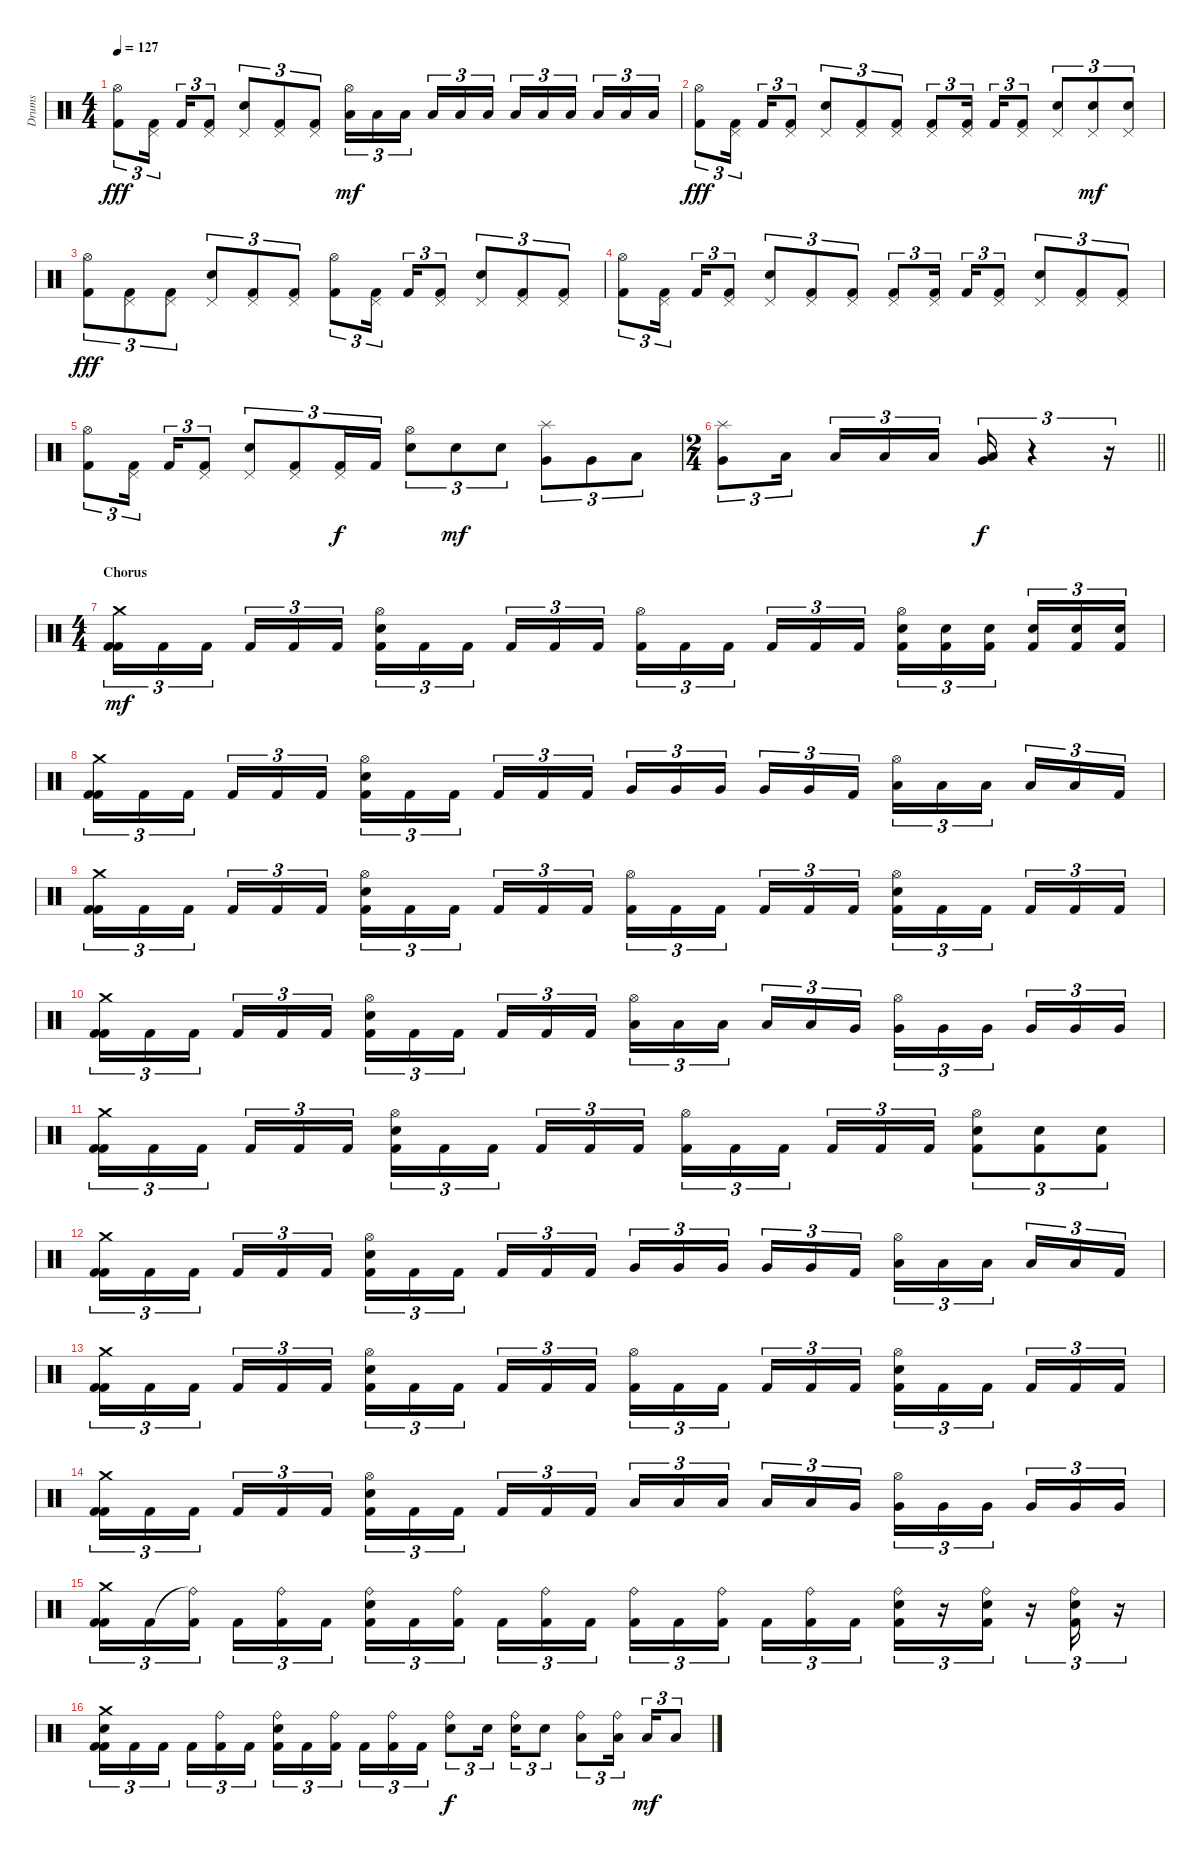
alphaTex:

\track ("Drums" "Drums") {instrument percussion}
\staff {score}
\articulation defaults
\ts (4 4)
\tempo 127
\clef neutral
\ks c
("Hi-Hat (open)" "Kick (hit) 2").8{tu (3 2) dy fff} ("Pedal Hi-Hat (hit)" "Kick (hit) 2").16{tu (3 2) beam splitsecondary} "Kick (hit) 2".16{tu (3 2)} ("Pedal Hi-Hat (hit)" "Kick (hit) 2").8{tu (3 2)} ("Pedal Hi-Hat (hit)" "Snare (hit) 2").8{tu (3 2)} ("Pedal Hi-Hat (hit)" "Kick (hit) 2").8{tu (3 2)} ("Pedal Hi-Hat (hit)" "Kick (hit) 2").8{tu (3 2)} ("Hi-Hat (open)" "Low Tom (hit)").16{tu (3 2) dy mf} "Low Tom (hit)".16{tu (3 2)} "Low Tom (hit)".16{tu (3 2) beam splitsecondary} "Low Tom (hit)".16{tu (3 2)} "Low Tom (hit)".16{tu (3 2)} "Low Tom (hit)".16{tu (3 2)} "Low Floor Tom (hit)".16{tu (3 2)} "Low Floor Tom (hit)".16{tu (3 2)} "Low Floor Tom (hit)".16{tu (3 2) beam splitsecondary} "Low Floor Tom (hit)".16{tu (3 2)} "Low Floor Tom (hit)".16{tu (3 2)} "Low Floor Tom (hit)".16{tu (3 2)} |
("Hi-Hat (open)" "Kick (hit) 2").8{tu (3 2) dy fff} ("Pedal Hi-Hat (hit)" "Kick (hit) 2").16{tu (3 2) beam splitsecondary} "Kick (hit) 2".16{tu (3 2)} ("Pedal Hi-Hat (hit)" "Kick (hit) 2").8{tu (3 2)} ("Pedal Hi-Hat (hit)" "Snare (hit) 2").8{tu (3 2)} ("Pedal Hi-Hat (hit)" "Kick (hit) 2").8{tu (3 2)} ("Pedal Hi-Hat (hit)" "Kick (hit) 2").8{tu (3 2)} ("Pedal Hi-Hat (hit)" "Kick (hit) 2").8{tu (3 2)} ("Pedal Hi-Hat (hit)" "Kick (hit) 2").16{tu (3 2) beam splitsecondary} "Kick (hit) 2".16{tu (3 2)} ("Pedal Hi-Hat (hit)" "Kick (hit) 2").8{tu (3 2)} ("Pedal Hi-Hat (hit)" "Snare (hit) 2").8{tu (3 2)} ("Pedal Hi-Hat (hit)" "Snare (hit) 2").8{tu (3 2) dy mf} ("Pedal Hi-Hat (hit)" "Snare (hit) 2").8{tu (3 2)} |
("Hi-Hat (open)" "Kick (hit) 2").8{tu (3 2) dy fff} ("Pedal Hi-Hat (hit)" "Kick (hit) 2").8{tu (3 2)} ("Pedal Hi-Hat (hit)" "Kick (hit) 2").8{tu (3 2)} ("Pedal Hi-Hat (hit)" "Snare (hit) 2").8{tu (3 2)} ("Pedal Hi-Hat (hit)" "Kick (hit) 2").8{tu (3 2)} ("Pedal Hi-Hat (hit)" "Kick (hit) 2").8{tu (3 2)} ("Hi-Hat (open)" "Kick (hit) 2").8{tu (3 2)} ("Pedal Hi-Hat (hit)" "Kick (hit) 2").16{tu (3 2) beam splitsecondary} "Kick (hit) 2".16{tu (3 2)} ("Pedal Hi-Hat (hit)" "Kick (hit) 2").8{tu (3 2)} ("Pedal Hi-Hat (hit)" "Snare (hit) 2").8{tu (3 2)} ("Pedal Hi-Hat (hit)" "Kick (hit) 2").8{tu (3 2)} ("Pedal Hi-Hat (hit)" "Kick (hit) 2").8{tu (3 2)} |
("Hi-Hat (open)" "Kick (hit) 2").8{tu (3 2)} ("Pedal Hi-Hat (hit)" "Kick (hit) 2").16{tu (3 2) beam splitsecondary} "Kick (hit) 2".16{tu (3 2)} ("Pedal Hi-Hat (hit)" "Kick (hit) 2").8{tu (3 2)} ("Pedal Hi-Hat (hit)" "Snare (hit) 2").8{tu (3 2)} ("Pedal Hi-Hat (hit)" "Kick (hit) 2").8{tu (3 2)} ("Pedal Hi-Hat (hit)" "Kick (hit) 2").8{tu (3 2)} ("Pedal Hi-Hat (hit)" "Kick (hit) 2").8{tu (3 2)} ("Pedal Hi-Hat (hit)" "Kick (hit) 2").16{tu (3 2) beam splitsecondary} "Kick (hit) 2".16{tu (3 2)} ("Pedal Hi-Hat (hit)" "Kick (hit) 2").8{tu (3 2)} ("Pedal Hi-Hat (hit)" "Snare (hit) 2").8{tu (3 2)} ("Pedal Hi-Hat (hit)" "Kick (hit) 2").8{tu (3 2)} ("Pedal Hi-Hat (hit)" "Kick (hit) 2").8{tu (3 2)} |
("Hi-Hat (open)" "Kick (hit) 2").8{tu (3 2)} ("Pedal Hi-Hat (hit)" "Kick (hit) 2").16{tu (3 2) beam splitsecondary} "Kick (hit) 2".16{tu (3 2)} ("Pedal Hi-Hat (hit)" "Kick (hit) 2").8{tu (3 2)} ("Pedal Hi-Hat (hit)" "Snare (hit) 2").8{tu (3 2)} ("Pedal Hi-Hat (hit)" "Kick (hit) 2").8{tu (3 2)} ("Pedal Hi-Hat (hit)" "Kick (hit) 2").16{tu (3 2) dy f} "Kick (hit) 2".16{tu (3 2)} ("Hi-Hat (open)" "Snare (hit) 2").8{tu (3 2)} "Snare (hit) 2".8{tu (3 2) dy mf} "Snare (hit) 2".8{tu (3 2)} ("Splash (hit)" "Very Low Tom (hit)").8{tu (3 2)} "Very Low Tom (hit)".8{tu (3 2)} "Low Floor Tom (hit)".8{tu (3 2)} |
\ts (2 4)
\barLineRight lightlight
("Splash (hit)" "Very Low Tom (hit)").8{tu (3 2)} "Low Floor Tom (hit)".16{tu (3 2) beam splitsecondary} "Low Floor Tom (hit)".16{tu (3 2)} "Low Floor Tom (hit)".16{tu (3 2)} "Low Floor Tom (hit)".16{tu (3 2)} ("Very Low Tom (hit)" "Low Floor Tom (hit)").16{tu (3 2) bd 120 dy f} r.4{tu (3 2)} r.16{tu (3 2)} |
\ts (4 4)
\section ("" "Chorus")
("Crash medium (hit)" "Kick (hit) 2" "Kick (hit) 2").16{tu (3 2) dy mf} "Kick (hit) 2".16{tu (3 2)} "Kick (hit) 2".16{tu (3 2) beam splitsecondary} "Kick (hit) 2".16{tu (3 2)} "Kick (hit) 2".16{tu (3 2)} "Kick (hit) 2".16{tu (3 2)} ("Hi-Hat (open)" "Snare (hit) 2" "Kick (hit) 2").16{tu (3 2)} "Kick (hit) 2".16{tu (3 2)} "Kick (hit) 2".16{tu (3 2) beam splitsecondary} "Kick (hit) 2".16{tu (3 2)} "Kick (hit) 2".16{tu (3 2)} "Kick (hit) 2".16{tu (3 2)} ("Hi-Hat (open)" "Kick (hit) 2").16{tu (3 2)} "Kick (hit) 2".16{tu (3 2)} "Kick (hit) 2".16{tu (3 2) beam splitsecondary} "Kick (hit) 2".16{tu (3 2)} "Kick (hit) 2".16{tu (3 2)} "Kick (hit) 2".16{tu (3 2)} ("Hi-Hat (open)" "Snare (hit) 2" "Kick (hit) 2").16{tu (3 2)} ("Snare (hit) 2" "Kick (hit) 2").16{tu (3 2)} ("Snare (hit) 2" "Kick (hit) 2").16{tu (3 2) beam splitsecondary} ("Snare (hit) 2" "Kick (hit) 2").16{tu (3 2)} ("Snare (hit) 2" "Kick (hit) 2").16{tu (3 2)} ("Snare (hit) 2" "Kick (hit) 2").16{tu (3 2)} |
("Crash medium (hit)" "Kick (hit) 2" "Kick (hit) 2").16{tu (3 2)} "Kick (hit) 2".16{tu (3 2)} "Kick (hit) 2".16{tu (3 2) beam splitsecondary} "Kick (hit) 2".16{tu (3 2)} "Kick (hit) 2".16{tu (3 2)} "Kick (hit) 2".16{tu (3 2)} ("Hi-Hat (open)" "Snare (hit) 2" "Kick (hit) 2").16{tu (3 2)} "Kick (hit) 2".16{tu (3 2)} "Kick (hit) 2".16{tu (3 2) beam splitsecondary} "Kick (hit) 2".16{tu (3 2)} "Kick (hit) 2".16{tu (3 2)} "Kick (hit) 2".16{tu (3 2)} "Very Low Tom (hit)".16{tu (3 2)} "Very Low Tom (hit)".16{tu (3 2)} "Very Low Tom (hit)".16{tu (3 2) beam splitsecondary} "Very Low Tom (hit)".16{tu (3 2)} "Very Low Tom (hit)".16{tu (3 2)} "Kick (hit) 2".16{tu (3 2)} ("Hi-Hat (open)" "Low Floor Tom (hit)").16{tu (3 2)} "Low Floor Tom (hit)".16{tu (3 2)} "Low Floor Tom (hit)".16{tu (3 2) beam splitsecondary} "Low Floor Tom (hit)".16{tu (3 2)} "Low Floor Tom (hit)".16{tu (3 2)} "Kick (hit) 2".16{tu (3 2)} |
("Crash medium (hit)" "Kick (hit) 2" "Kick (hit) 2").16{tu (3 2)} "Kick (hit) 2".16{tu (3 2)} "Kick (hit) 2".16{tu (3 2) beam splitsecondary} "Kick (hit) 2".16{tu (3 2)} "Kick (hit) 2".16{tu (3 2)} "Kick (hit) 2".16{tu (3 2)} ("Hi-Hat (open)" "Snare (hit) 2" "Kick (hit) 2").16{tu (3 2)} "Kick (hit) 2".16{tu (3 2)} "Kick (hit) 2".16{tu (3 2) beam splitsecondary} "Kick (hit) 2".16{tu (3 2)} "Kick (hit) 2".16{tu (3 2)} "Kick (hit) 2".16{tu (3 2)} ("Hi-Hat (open)" "Kick (hit) 2").16{tu (3 2)} "Kick (hit) 2".16{tu (3 2)} "Kick (hit) 2".16{tu (3 2) beam splitsecondary} "Kick (hit) 2".16{tu (3 2)} "Kick (hit) 2".16{tu (3 2)} "Kick (hit) 2".16{tu (3 2)} ("Hi-Hat (open)" "Snare (hit) 2" "Kick (hit) 2").16{tu (3 2)} "Kick (hit) 2".16{tu (3 2)} "Kick (hit) 2".16{tu (3 2) beam splitsecondary} "Kick (hit) 2".16{tu (3 2)} "Kick (hit) 2".16{tu (3 2)} "Kick (hit) 2".16{tu (3 2)} |
("Crash medium (hit)" "Kick (hit) 2" "Kick (hit) 2").16{tu (3 2)} "Kick (hit) 2".16{tu (3 2)} "Kick (hit) 2".16{tu (3 2) beam splitsecondary} "Kick (hit) 2".16{tu (3 2)} "Kick (hit) 2".16{tu (3 2)} "Kick (hit) 2".16{tu (3 2)} ("Hi-Hat (open)" "Snare (hit) 2" "Kick (hit) 2").16{tu (3 2)} "Kick (hit) 2".16{tu (3 2)} "Kick (hit) 2".16{tu (3 2) beam splitsecondary} "Kick (hit) 2".16{tu (3 2)} "Kick (hit) 2".16{tu (3 2)} "Kick (hit) 2".16{tu (3 2)} ("Hi-Hat (open)" "Low Tom (hit)").16{tu (3 2)} "Low Tom (hit)".16{tu (3 2)} "Low Tom (hit)".16{tu (3 2) beam splitsecondary} "Low Tom (hit)".16{tu (3 2)} "Low Tom (hit)".16{tu (3 2)} "Very Low Tom (hit)".16{tu (3 2)} ("Hi-Hat (open)" "Very Low Tom (hit)").16{tu (3 2)} "Very Low Tom (hit)".16{tu (3 2)} "Very Low Tom (hit)".16{tu (3 2) beam splitsecondary} "Very Low Tom (hit)".16{tu (3 2)} "Very Low Tom (hit)".16{tu (3 2)} "Very Low Tom (hit)".16{tu (3 2)} |
("Crash medium (hit)" "Kick (hit) 2" "Kick (hit) 2").16{tu (3 2)} "Kick (hit) 2".16{tu (3 2)} "Kick (hit) 2".16{tu (3 2) beam splitsecondary} "Kick (hit) 2".16{tu (3 2)} "Kick (hit) 2".16{tu (3 2)} "Kick (hit) 2".16{tu (3 2)} ("Hi-Hat (open)" "Snare (hit) 2" "Kick (hit) 2").16{tu (3 2)} "Kick (hit) 2".16{tu (3 2)} "Kick (hit) 2".16{tu (3 2) beam splitsecondary} "Kick (hit) 2".16{tu (3 2)} "Kick (hit) 2".16{tu (3 2)} "Kick (hit) 2".16{tu (3 2)} ("Hi-Hat (open)" "Kick (hit) 2").16{tu (3 2)} "Kick (hit) 2".16{tu (3 2)} "Kick (hit) 2".16{tu (3 2) beam splitsecondary} "Kick (hit) 2".16{tu (3 2)} "Kick (hit) 2".16{tu (3 2)} "Kick (hit) 2".16{tu (3 2)} ("Hi-Hat (open)" "Snare (hit) 2" "Kick (hit) 2").8{tu (3 2)} ("Snare (hit) 2" "Kick (hit) 2").8{tu (3 2)} ("Snare (hit) 2" "Kick (hit) 2").8{tu (3 2)} |
("Crash medium (hit)" "Kick (hit) 2" "Kick (hit) 2").16{tu (3 2)} "Kick (hit) 2".16{tu (3 2)} "Kick (hit) 2".16{tu (3 2) beam splitsecondary} "Kick (hit) 2".16{tu (3 2)} "Kick (hit) 2".16{tu (3 2)} "Kick (hit) 2".16{tu (3 2)} ("Hi-Hat (open)" "Snare (hit) 2" "Kick (hit) 2").16{tu (3 2)} "Kick (hit) 2".16{tu (3 2)} "Kick (hit) 2".16{tu (3 2) beam splitsecondary} "Kick (hit) 2".16{tu (3 2)} "Kick (hit) 2".16{tu (3 2)} "Kick (hit) 2".16{tu (3 2)} "Very Low Tom (hit)".16{tu (3 2)} "Very Low Tom (hit)".16{tu (3 2)} "Very Low Tom (hit)".16{tu (3 2) beam splitsecondary} "Very Low Tom (hit)".16{tu (3 2)} "Very Low Tom (hit)".16{tu (3 2)} "Kick (hit) 2".16{tu (3 2)} ("Hi-Hat (open)" "Low Floor Tom (hit)").16{tu (3 2)} "Low Floor Tom (hit)".16{tu (3 2)} "Low Floor Tom (hit)".16{tu (3 2) beam splitsecondary} "Low Floor Tom (hit)".16{tu (3 2)} "Low Floor Tom (hit)".16{tu (3 2)} "Kick (hit) 2".16{tu (3 2)} |
("Crash medium (hit)" "Kick (hit) 2" "Kick (hit) 2").16{tu (3 2)} "Kick (hit) 2".16{tu (3 2)} "Kick (hit) 2".16{tu (3 2) beam splitsecondary} "Kick (hit) 2".16{tu (3 2)} "Kick (hit) 2".16{tu (3 2)} "Kick (hit) 2".16{tu (3 2)} ("Hi-Hat (open)" "Snare (hit) 2" "Kick (hit) 2").16{tu (3 2)} "Kick (hit) 2".16{tu (3 2)} "Kick (hit) 2".16{tu (3 2) beam splitsecondary} "Kick (hit) 2".16{tu (3 2)} "Kick (hit) 2".16{tu (3 2)} "Kick (hit) 2".16{tu (3 2)} ("Hi-Hat (open)" "Kick (hit) 2").16{tu (3 2)} "Kick (hit) 2".16{tu (3 2)} "Kick (hit) 2".16{tu (3 2) beam splitsecondary} "Kick (hit) 2".16{tu (3 2)} "Kick (hit) 2".16{tu (3 2)} "Kick (hit) 2".16{tu (3 2)} ("Hi-Hat (open)" "Snare (hit) 2" "Kick (hit) 2").16{tu (3 2)} "Kick (hit) 2".16{tu (3 2)} "Kick (hit) 2".16{tu (3 2) beam splitsecondary} "Kick (hit) 2".16{tu (3 2)} "Kick (hit) 2".16{tu (3 2)} "Kick (hit) 2".16{tu (3 2)} |
("Crash medium (hit)" "Kick (hit) 2" "Kick (hit) 2").16{tu (3 2)} "Kick (hit) 2".16{tu (3 2)} "Kick (hit) 2".16{tu (3 2) beam splitsecondary} "Kick (hit) 2".16{tu (3 2)} "Kick (hit) 2".16{tu (3 2)} "Kick (hit) 2".16{tu (3 2)} ("Hi-Hat (open)" "Snare (hit) 2" "Kick (hit) 2").16{tu (3 2)} "Kick (hit) 2".16{tu (3 2)} "Kick (hit) 2".16{tu (3 2) beam splitsecondary} "Kick (hit) 2".16{tu (3 2)} "Kick (hit) 2".16{tu (3 2)} "Kick (hit) 2".16{tu (3 2)} "Low Tom (hit)".16{tu (3 2)} "Low Tom (hit)".16{tu (3 2)} "Low Tom (hit)".16{tu (3 2) beam splitsecondary} "Low Tom (hit)".16{tu (3 2)} "Low Tom (hit)".16{tu (3 2)} "Very Low Tom (hit)".16{tu (3 2)} ("Hi-Hat (open)" "Very Low Tom (hit)").16{tu (3 2)} "Very Low Tom (hit)".16{tu (3 2)} "Very Low Tom (hit)".16{tu (3 2) beam splitsecondary} "Very Low Tom (hit)".16{tu (3 2)} "Very Low Tom (hit)".16{tu (3 2)} "Very Low Tom (hit)".16{tu (3 2)} |
("Crash medium (hit)" "Kick (hit) 2" "Kick (hit) 2").16{tu (3 2)} "Kick (hit) 2".16{tu (3 2)} ("Ride (bell)"{t} "Kick (hit) 2").16{tu (3 2) beam splitsecondary} "Kick (hit) 2".16{tu (3 2)} ("Ride (bell)" "Kick (hit) 2").16{tu (3 2)} "Kick (hit) 2".16{tu (3 2)} ("Ride (bell)" "Snare (hit) 2" "Kick (hit) 2").16{tu (3 2)} "Kick (hit) 2".16{tu (3 2)} ("Ride (bell)" "Kick (hit) 2").16{tu (3 2) beam splitsecondary} "Kick (hit) 2".16{tu (3 2)} ("Ride (bell)" "Kick (hit) 2").16{tu (3 2)} "Kick (hit) 2".16{tu (3 2)} ("Ride (bell)" "Kick (hit) 2").16{tu (3 2)} "Kick (hit) 2".16{tu (3 2)} ("Ride (bell)" "Kick (hit) 2").16{tu (3 2) beam splitsecondary} "Kick (hit) 2".16{tu (3 2)} ("Ride (bell)" "Kick (hit) 2").16{tu (3 2)} "Kick (hit) 2".16{tu (3 2)} ("Ride (bell)" "Snare (hit) 2" "Kick (hit) 2").16{tu (3 2)} r.16{tu (3 2)} ("Ride (bell)" "Snare (hit) 2" "Kick (hit) 2").16{tu (3 2)} r.16{tu (3 2)} ("Ride (bell)" "Snare (hit) 2" "Kick (hit) 2").16{tu (3 2)} r.16{tu (3 2)} |
("Crash medium (hit)" "Snare (hit) 2" "Kick (hit) 2" "Kick (hit) 2").16{tu (3 2)} "Kick (hit) 2".16{tu (3 2)} "Kick (hit) 2".16{tu (3 2) beam splitsecondary} "Kick (hit) 2".16{tu (3 2)} ("Ride (bell)" "Kick (hit) 2").16{tu (3 2)} "Kick (hit) 2".16{tu (3 2)} ("Ride (bell)" "Snare (hit) 2" "Kick (hit) 2").16{tu (3 2)} "Kick (hit) 2".16{tu (3 2)} ("Ride (bell)" "Kick (hit) 2").16{tu (3 2) beam splitsecondary} "Kick (hit) 2".16{tu (3 2)} ("Ride (bell)" "Kick (hit) 2").16{tu (3 2)} "Kick (hit) 2".16{tu (3 2)} ("Ride (bell)" "Snare (hit) 2").8{tu (3 2) dy f} "Snare (hit) 2".16{tu (3 2) beam splitsecondary} ("Ride (bell)" "Snare (hit) 2").16{tu (3 2)} "Snare (hit) 2".8{tu (3 2)} ("Ride (bell)" "Low Floor Tom (hit)").8{tu (3 2)} ("Ride (bell)" "Low Floor Tom (hit)").16{tu (3 2) beam splitsecondary} "Low Floor Tom (hit)".16{tu (3 2) dy mf} "Low Floor Tom (hit)".8{tu (3 2)}
